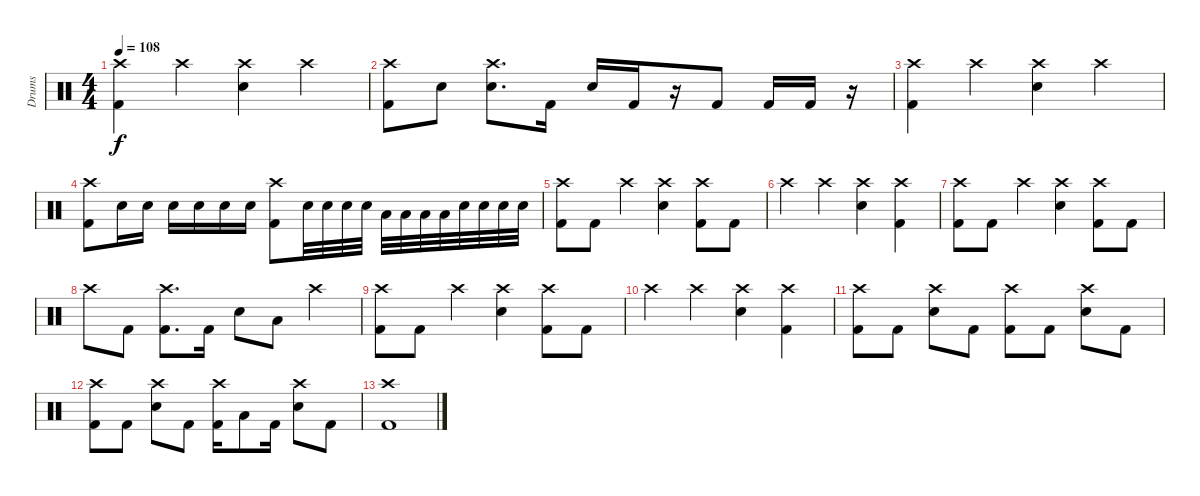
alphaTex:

\track ("Drums" "Drums") {instrument percussion}
\staff {score}
\articulation defaults
\ts (4 4)
\tempo 108
\clef neutral
\ks c
("Crash high (hit)" "Kick (hit) 2").4{dy f} "Crash high (hit)".4 ("Crash high (hit)" "Electric Snare (hit)").4 "Crash high (hit)".4 |
("Crash high (hit)" "Kick (hit) 2").8 "Electric Snare (hit)".8 ("Crash high (hit)" "Electric Snare (hit)").8{d} "Kick (hit) 2".16 "Electric Snare (hit)".16 "Kick (hit) 2".16 r.16 "Kick (hit) 2".8 "Kick (hit) 2".16 "Kick (hit) 2".16 r.16 |
("Crash high (hit)" "Kick (hit) 2").4 "Crash high (hit)".4 ("Crash high (hit)" "Electric Snare (hit)").4 "Crash high (hit)".4 |
("Crash high (hit)" "Kick (hit) 2").8 "Electric Snare (hit)".16 "Electric Snare (hit)".16 "Electric Snare (hit)".16 "Electric Snare (hit)".16 "Electric Snare (hit)".16 "Electric Snare (hit)".16 ("Crash high (hit)" "Kick (hit) 2").8 "Electric Snare (hit)".32 "Electric Snare (hit)".32 "Electric Snare (hit)".32 "Electric Snare (hit)".32 "Low Tom (hit)".32 "Low Tom (hit)".32 "Low Tom (hit)".32 "Low Tom (hit)".32 "Electric Snare (hit)".32 "Electric Snare (hit)".32 "Electric Snare (hit)".32 "Electric Snare (hit)".32 |
("Crash high (hit)" "Kick (hit) 2").8 "Kick (hit) 2".8 "Crash high (hit)".4 ("Crash high (hit)" "Electric Snare (hit)").4 ("Crash high (hit)" "Kick (hit) 2").8 "Kick (hit) 2".8 |
"Crash high (hit)".4 "Crash high (hit)".4 ("Crash high (hit)" "Electric Snare (hit)").4 ("Crash high (hit)" "Kick (hit) 2").4 |
("Crash high (hit)" "Kick (hit) 2").8 "Kick (hit) 2".8 "Crash high (hit)".4 ("Crash high (hit)" "Electric Snare (hit)").4 ("Crash high (hit)" "Kick (hit) 2").8 "Kick (hit) 2".8 |
"Crash high (hit)".8 "Kick (hit) 2".8 ("Crash high (hit)" "Kick (hit) 2").8{d} "Kick (hit) 2".16 "Electric Snare (hit)".8 "Low Tom (hit)".8 "Crash high (hit)".4 |
("Crash high (hit)" "Kick (hit) 2").8 "Kick (hit) 2".8 "Crash high (hit)".4 ("Crash high (hit)" "Electric Snare (hit)").4 ("Crash high (hit)" "Kick (hit) 2").8 "Kick (hit) 2".8 |
"Crash high (hit)".4 "Crash high (hit)".4 ("Crash high (hit)" "Electric Snare (hit)").4 ("Crash high (hit)" "Kick (hit) 2").4 |
("Crash high (hit)" "Kick (hit) 2").8 "Kick (hit) 2".8 ("Crash high (hit)" "Electric Snare (hit)").8 "Kick (hit) 2".8 ("Crash high (hit)" "Kick (hit) 2").8 "Kick (hit) 2".8 ("Crash high (hit)" "Electric Snare (hit)").8 "Kick (hit) 2".8 |
("Crash high (hit)" "Kick (hit) 2").8 "Kick (hit) 2".8 ("Crash high (hit)" "Electric Snare (hit)").8 "Kick (hit) 2".8 ("Crash high (hit)" "Kick (hit) 2").16 "Low Tom (hit)".8 "Kick (hit) 2".16 ("Crash high (hit)" "Electric Snare (hit)").8 "Kick (hit) 2".8 |
("Crash high (hit)" "Kick (hit) 2").1
